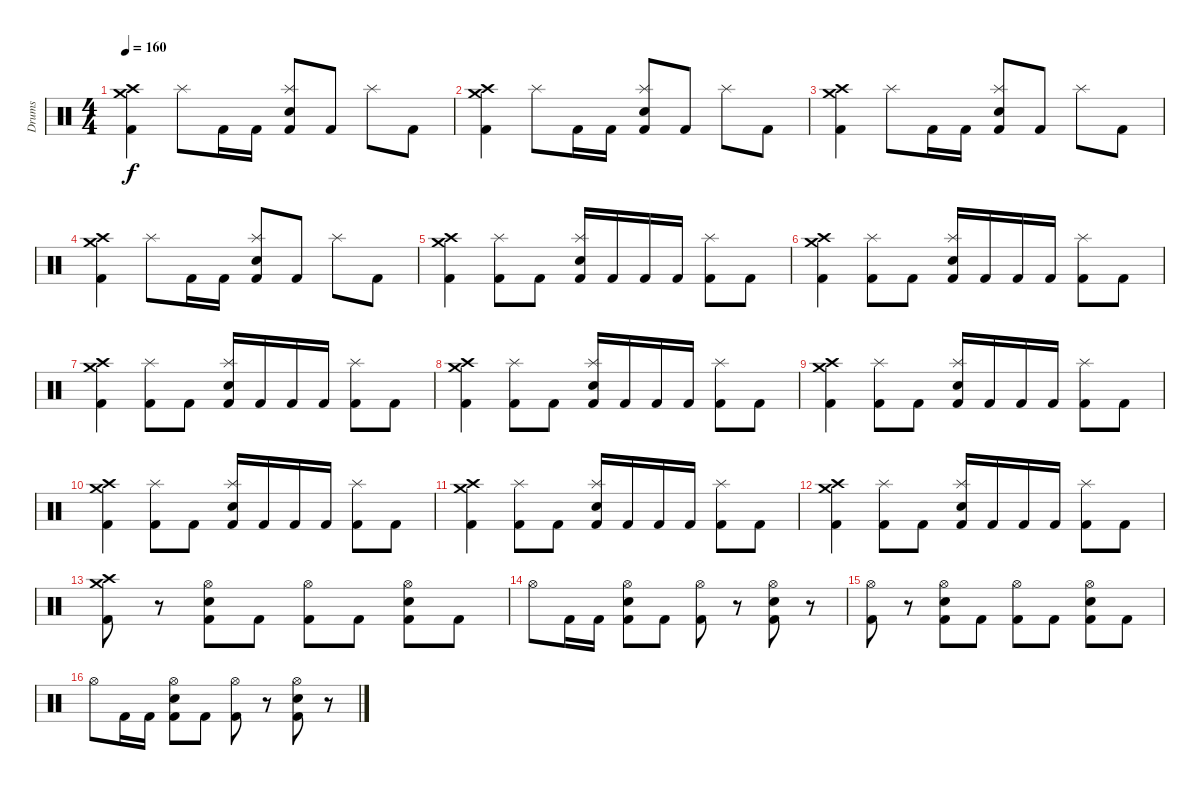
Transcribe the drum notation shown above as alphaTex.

\track ("Drums" "Drums") {instrument percussion}
\staff {score}
\articulation defaults
\ts (4 4)
\tempo 160
\clef neutral
\ks c
("Crash medium (hit)" "Crash high (hit)" "Kick (hit) 2").4{dy f} "Splash (hit)".8 "Kick (hit) 2".16 "Kick (hit) 2".16 ("Splash (hit)" "Snare (hit) 2" "Kick (hit) 2").8 "Kick (hit) 2".8 "Splash (hit)".8 "Kick (hit) 2".8 |
("Crash medium (hit)" "Crash high (hit)" "Kick (hit) 2").4 "Splash (hit)".8 "Kick (hit) 2".16 "Kick (hit) 2".16 ("Splash (hit)" "Snare (hit) 2" "Kick (hit) 2").8 "Kick (hit) 2".8 "Splash (hit)".8 "Kick (hit) 2".8 |
("Crash medium (hit)" "Crash high (hit)" "Kick (hit) 2").4 "Splash (hit)".8 "Kick (hit) 2".16 "Kick (hit) 2".16 ("Splash (hit)" "Snare (hit) 2" "Kick (hit) 2").8 "Kick (hit) 2".8 "Splash (hit)".8 "Kick (hit) 2".8 |
("Crash medium (hit)" "Crash high (hit)" "Kick (hit) 2").4 "Splash (hit)".8 "Kick (hit) 2".16 "Kick (hit) 2".16 ("Splash (hit)" "Snare (hit) 2" "Kick (hit) 2").8 "Kick (hit) 2".8 "Splash (hit)".8 "Kick (hit) 2".8 |
("Crash high (hit)" "Crash medium (hit)" "Kick (hit) 2").4 ("Splash (hit)" "Kick (hit) 2").8 "Kick (hit) 2".8 ("Splash (hit)" "Snare (hit) 2" "Kick (hit) 2").16 "Kick (hit) 2".16 "Kick (hit) 2".16 "Kick (hit) 2".16 ("Splash (hit)" "Kick (hit) 2").8 "Kick (hit) 2".8 |
("Crash high (hit)" "Crash medium (hit)" "Kick (hit) 2").4 ("Splash (hit)" "Kick (hit) 2").8 "Kick (hit) 2".8 ("Splash (hit)" "Snare (hit) 2" "Kick (hit) 2").16 "Kick (hit) 2".16 "Kick (hit) 2".16 "Kick (hit) 2".16 ("Splash (hit)" "Kick (hit) 2").8 "Kick (hit) 2".8 |
("Crash high (hit)" "Crash medium (hit)" "Kick (hit) 2").4 ("Splash (hit)" "Kick (hit) 2").8 "Kick (hit) 2".8 ("Splash (hit)" "Snare (hit) 2" "Kick (hit) 2").16 "Kick (hit) 2".16 "Kick (hit) 2".16 "Kick (hit) 2".16 ("Splash (hit)" "Kick (hit) 2").8 "Kick (hit) 2".8 |
("Crash high (hit)" "Crash medium (hit)" "Kick (hit) 2").4 ("Splash (hit)" "Kick (hit) 2").8 "Kick (hit) 2".8 ("Splash (hit)" "Snare (hit) 2" "Kick (hit) 2").16 "Kick (hit) 2".16 "Kick (hit) 2".16 "Kick (hit) 2".16 ("Splash (hit)" "Kick (hit) 2").8 "Kick (hit) 2".8 |
("Crash high (hit)" "Crash medium (hit)" "Kick (hit) 2").4 ("Splash (hit)" "Kick (hit) 2").8 "Kick (hit) 2".8 ("Splash (hit)" "Snare (hit) 2" "Kick (hit) 2").16 "Kick (hit) 2".16 "Kick (hit) 2".16 "Kick (hit) 2".16 ("Splash (hit)" "Kick (hit) 2").8 "Kick (hit) 2".8 |
("Crash high (hit)" "Crash medium (hit)" "Kick (hit) 2").4 ("Splash (hit)" "Kick (hit) 2").8 "Kick (hit) 2".8 ("Splash (hit)" "Snare (hit) 2" "Kick (hit) 2").16 "Kick (hit) 2".16 "Kick (hit) 2".16 "Kick (hit) 2".16 ("Splash (hit)" "Kick (hit) 2").8 "Kick (hit) 2".8 |
("Crash high (hit)" "Crash medium (hit)" "Kick (hit) 2").4 ("Splash (hit)" "Kick (hit) 2").8 "Kick (hit) 2".8 ("Splash (hit)" "Snare (hit) 2" "Kick (hit) 2").16 "Kick (hit) 2".16 "Kick (hit) 2".16 "Kick (hit) 2".16 ("Splash (hit)" "Kick (hit) 2").8 "Kick (hit) 2".8 |
("Crash high (hit)" "Crash medium (hit)" "Kick (hit) 2").4 ("Splash (hit)" "Kick (hit) 2").8 "Kick (hit) 2".8 ("Splash (hit)" "Snare (hit) 2" "Kick (hit) 2").16 "Kick (hit) 2".16 "Kick (hit) 2".16 "Kick (hit) 2".16 ("Splash (hit)" "Kick (hit) 2").8 "Kick (hit) 2".8 |
("Crash medium (hit)" "Crash high (hit)" "Kick (hit) 2").8 r.8 ("Hi-Hat (open)" "Snare (hit) 2" "Kick (hit) 2").8 "Kick (hit) 2".8 ("Hi-Hat (open)" "Kick (hit) 2").8 "Kick (hit) 2".8 ("Hi-Hat (open)" "Snare (hit) 2" "Kick (hit) 2").8 "Kick (hit) 2".8 |
"Hi-Hat (open)".8 "Kick (hit) 2".16 "Kick (hit) 2".16 ("Hi-Hat (open)" "Snare (hit) 2" "Kick (hit) 2").8 "Kick (hit) 2".8 ("Hi-Hat (open)" "Kick (hit) 2").8 r.8 ("Hi-Hat (open)" "Snare (hit) 2" "Kick (hit) 2").8 r.8 |
("Hi-Hat (open)" "Kick (hit) 2").8 r.8 ("Hi-Hat (open)" "Snare (hit) 2" "Kick (hit) 2").8 "Kick (hit) 2".8 ("Hi-Hat (open)" "Kick (hit) 2").8 "Kick (hit) 2".8 ("Hi-Hat (open)" "Snare (hit) 2" "Kick (hit) 2").8 "Kick (hit) 2".8 |
"Hi-Hat (open)".8 "Kick (hit) 2".16 "Kick (hit) 2".16 ("Hi-Hat (open)" "Snare (hit) 2" "Kick (hit) 2").8 "Kick (hit) 2".8 ("Hi-Hat (open)" "Kick (hit) 2").8 r.8 ("Hi-Hat (open)" "Snare (hit) 2" "Kick (hit) 2").8 r.8
